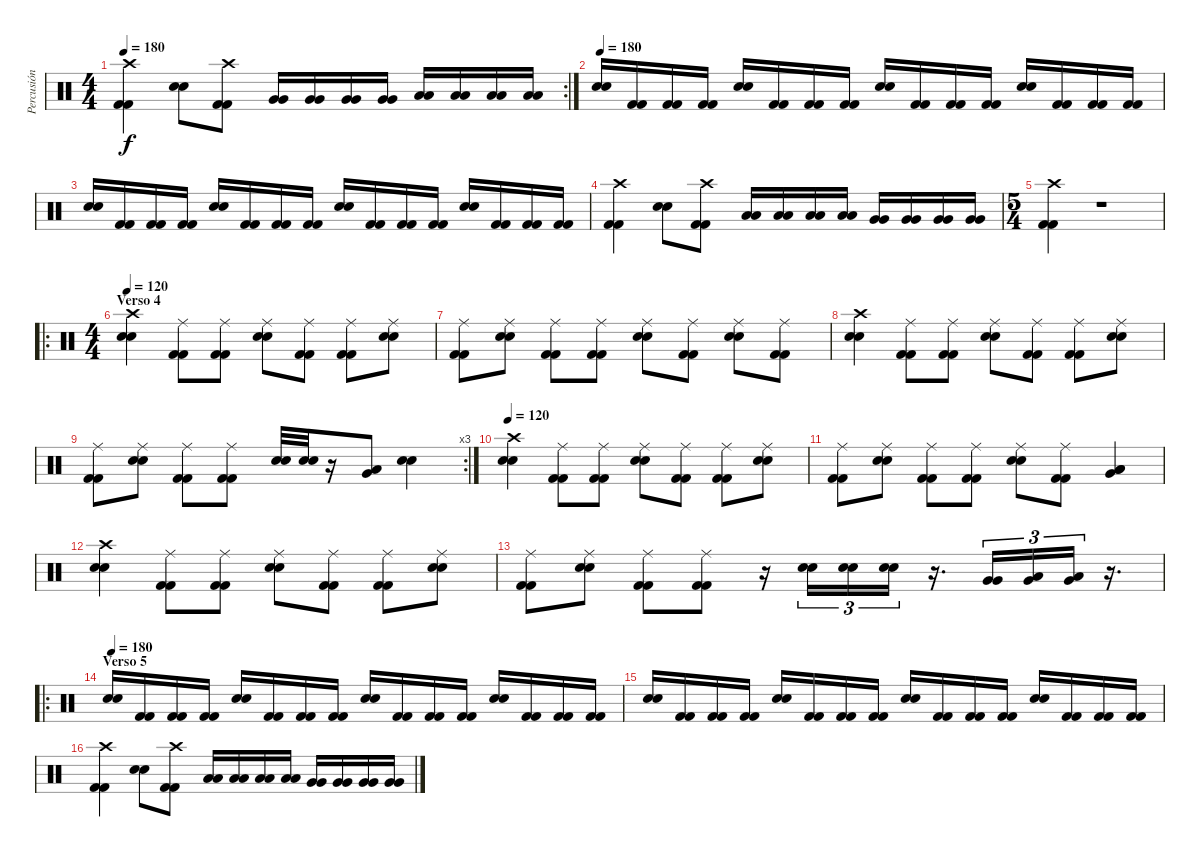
\track ("Percusión" "Percusión") {instrument percussion}
\staff {score}
\articulation defaults
\rc 2
\ts (4 4)
\tempo 180
\clef neutral
\ks c
("Crash high (hit)" "Kick (hit) 2" "Kick (hit) 2").4{dy f} ("Snare (hit) 2" "Snare (hit) 2").8 ("Crash high (hit)" "Kick (hit) 2" "Kick (hit) 2").8 ("Very Low Tom (hit)" "Very Low Tom (hit)").16 ("Very Low Tom (hit)" "Very Low Tom (hit)").16 ("Very Low Tom (hit)" "Very Low Tom (hit)").16 ("Very Low Tom (hit)" "Very Low Tom (hit)").16 ("Low Floor Tom (hit)" "Low Floor Tom (hit)").16 ("Low Floor Tom (hit)" "Low Floor Tom (hit)").16 ("Low Floor Tom (hit)" "Low Floor Tom (hit)").16 ("Low Floor Tom (hit)" "Low Floor Tom (hit)").16 |
\tempo 180
("Snare (hit) 2" "Snare (hit) 2").16 ("Kick (hit) 2" "Kick (hit) 2").16 ("Kick (hit) 2" "Kick (hit) 2").16 ("Kick (hit) 2" "Kick (hit) 2").16 ("Snare (hit) 2" "Snare (hit) 2").16 ("Kick (hit) 2" "Kick (hit) 2").16 ("Kick (hit) 2" "Kick (hit) 2").16 ("Kick (hit) 2" "Kick (hit) 2").16 ("Snare (hit) 2" "Snare (hit) 2").16 ("Kick (hit) 2" "Kick (hit) 2").16 ("Kick (hit) 2" "Kick (hit) 2").16 ("Kick (hit) 2" "Kick (hit) 2").16 ("Snare (hit) 2" "Snare (hit) 2").16 ("Kick (hit) 2" "Kick (hit) 2").16 ("Kick (hit) 2" "Kick (hit) 2").16 ("Kick (hit) 2" "Kick (hit) 2").16 |
("Snare (hit) 2" "Snare (hit) 2").16 ("Kick (hit) 2" "Kick (hit) 2").16 ("Kick (hit) 2" "Kick (hit) 2").16 ("Kick (hit) 2" "Kick (hit) 2").16 ("Snare (hit) 2" "Snare (hit) 2").16 ("Kick (hit) 2" "Kick (hit) 2").16 ("Kick (hit) 2" "Kick (hit) 2").16 ("Kick (hit) 2" "Kick (hit) 2").16 ("Snare (hit) 2" "Snare (hit) 2").16 ("Kick (hit) 2" "Kick (hit) 2").16 ("Kick (hit) 2" "Kick (hit) 2").16 ("Kick (hit) 2" "Kick (hit) 2").16 ("Snare (hit) 2" "Snare (hit) 2").16 ("Kick (hit) 2" "Kick (hit) 2").16 ("Kick (hit) 2" "Kick (hit) 2").16 ("Kick (hit) 2" "Kick (hit) 2").16 |
("Crash high (hit)" "Kick (hit) 2" "Kick (hit) 2").4 ("Snare (hit) 2" "Snare (hit) 2").8 ("Crash high (hit)" "Kick (hit) 2" "Kick (hit) 2").8 ("Low Tom (hit)" "Low Tom (hit)").16 ("Low Tom (hit)" "Low Tom (hit)").16 ("Low Tom (hit)" "Low Tom (hit)").16 ("Low Tom (hit)" "Low Tom (hit)").16 ("Very Low Tom (hit)" "Very Low Tom (hit)").16 ("Very Low Tom (hit)" "Very Low Tom (hit)").16 ("Very Low Tom (hit)" "Very Low Tom (hit)").16 ("Very Low Tom (hit)" "Very Low Tom (hit)").16 |
\ts (5 4)
("Crash high (hit)" "Kick (hit) 2" "Kick (hit) 2").4 r.1 |
\ro
\ts (4 4)
\section ("" "Verso 4")
\tempo 120
("Crash high (hit)" "Snare (hit) 2" "Snare (hit) 2").4 ("Ride (middle)" "Kick (hit) 2" "Kick (hit) 2").8 ("Ride (middle)" "Kick (hit) 2" "Kick (hit) 2").8 ("Ride (middle)" "Snare (hit) 2" "Snare (hit) 2").8 ("Ride (middle)" "Kick (hit) 2" "Kick (hit) 2").8 ("Ride (middle)" "Kick (hit) 2" "Kick (hit) 2").8 ("Ride (middle)" "Snare (hit) 2" "Snare (hit) 2").8 |
("Ride (middle)" "Kick (hit) 2" "Kick (hit) 2").8 ("Ride (middle)" "Snare (hit) 2" "Snare (hit) 2").8 ("Ride (middle)" "Kick (hit) 2" "Kick (hit) 2").8 ("Ride (middle)" "Kick (hit) 2" "Kick (hit) 2").8 ("Ride (middle)" "Snare (hit) 2" "Snare (hit) 2").8 ("Ride (middle)" "Kick (hit) 2" "Kick (hit) 2").8 ("Ride (middle)" "Snare (hit) 2" "Snare (hit) 2").8 ("Ride (middle)" "Kick (hit) 2" "Kick (hit) 2").8 |
("Crash high (hit)" "Snare (hit) 2" "Snare (hit) 2").4 ("Ride (middle)" "Kick (hit) 2" "Kick (hit) 2").8 ("Ride (middle)" "Kick (hit) 2" "Kick (hit) 2").8 ("Ride (middle)" "Snare (hit) 2" "Snare (hit) 2").8 ("Ride (middle)" "Kick (hit) 2" "Kick (hit) 2").8 ("Ride (middle)" "Kick (hit) 2" "Kick (hit) 2").8 ("Ride (middle)" "Snare (hit) 2" "Snare (hit) 2").8 |
\rc 3
("Ride (middle)" "Kick (hit) 2" "Kick (hit) 2").8 ("Ride (middle)" "Snare (hit) 2" "Snare (hit) 2").8 ("Ride (middle)" "Kick (hit) 2" "Kick (hit) 2").8 ("Ride (middle)" "Kick (hit) 2" "Kick (hit) 2").8 ("Electric Snare (hit)" "Electric Snare (hit)").32 ("Electric Snare (hit)" "Electric Snare (hit)").32 r.16 ("Very Low Tom (hit)" "Low Floor Tom (hit)").8 ("Snare (hit) 2" "Snare (hit) 2").4 |
\tempo 120
("Crash high (hit)" "Snare (hit) 2" "Snare (hit) 2").4 ("Ride (middle)" "Kick (hit) 2" "Kick (hit) 2").8 ("Ride (middle)" "Kick (hit) 2" "Kick (hit) 2").8 ("Ride (middle)" "Snare (hit) 2" "Snare (hit) 2").8 ("Ride (middle)" "Kick (hit) 2" "Kick (hit) 2").8 ("Ride (middle)" "Kick (hit) 2" "Kick (hit) 2").8 ("Ride (middle)" "Snare (hit) 2" "Snare (hit) 2").8 |
("Ride (middle)" "Kick (hit) 2" "Kick (hit) 2").8 ("Ride (middle)" "Snare (hit) 2" "Snare (hit) 2").8 ("Ride (middle)" "Kick (hit) 2" "Kick (hit) 2").8 ("Ride (middle)" "Kick (hit) 2" "Kick (hit) 2").8 ("Ride (middle)" "Snare (hit) 2" "Snare (hit) 2").8 ("Ride (middle)" "Kick (hit) 2" "Kick (hit) 2").8 ("Low Tom (hit)" "Very Low Tom (hit)" "Low Floor Tom (hit)").4 |
("Crash high (hit)" "Snare (hit) 2" "Snare (hit) 2").4 ("Ride (middle)" "Kick (hit) 2" "Kick (hit) 2").8 ("Ride (middle)" "Kick (hit) 2" "Kick (hit) 2").8 ("Ride (middle)" "Snare (hit) 2" "Snare (hit) 2").8 ("Ride (middle)" "Kick (hit) 2" "Kick (hit) 2").8 ("Ride (middle)" "Kick (hit) 2" "Kick (hit) 2").8 ("Ride (middle)" "Snare (hit) 2" "Snare (hit) 2").8 |
("Ride (middle)" "Kick (hit) 2" "Kick (hit) 2").8 ("Ride (middle)" "Snare (hit) 2" "Snare (hit) 2").8 ("Ride (middle)" "Kick (hit) 2" "Kick (hit) 2").8 ("Ride (middle)" "Kick (hit) 2" "Kick (hit) 2").8 r.16 ("Snare (hit) 2" "Snare (hit) 2").16{tu (3 2)} ("Snare (hit) 2" "Snare (hit) 2").16{tu (3 2)} ("Snare (hit) 2" "Snare (hit) 2").16{tu (3 2)} r.16{d} ("Very Low Tom (hit)" "Very Low Tom (hit)").16{tu (3 2)} ("Very Low Tom (hit)" "Low Floor Tom (hit)").16{tu (3 2)} ("Very Low Tom (hit)" "Low Floor Tom (hit)").16{tu (3 2)} r.16{d} |
\ro
\section ("" "Verso 5")
\tempo 180
("Snare (hit) 2" "Snare (hit) 2").16 ("Kick (hit) 2" "Kick (hit) 2").16 ("Kick (hit) 2" "Kick (hit) 2").16 ("Kick (hit) 2" "Kick (hit) 2").16 ("Snare (hit) 2" "Snare (hit) 2").16 ("Kick (hit) 2" "Kick (hit) 2").16 ("Kick (hit) 2" "Kick (hit) 2").16 ("Kick (hit) 2" "Kick (hit) 2").16 ("Snare (hit) 2" "Snare (hit) 2").16 ("Kick (hit) 2" "Kick (hit) 2").16 ("Kick (hit) 2" "Kick (hit) 2").16 ("Kick (hit) 2" "Kick (hit) 2").16 ("Snare (hit) 2" "Snare (hit) 2").16 ("Kick (hit) 2" "Kick (hit) 2").16 ("Kick (hit) 2" "Kick (hit) 2").16 ("Kick (hit) 2" "Kick (hit) 2").16 |
("Snare (hit) 2" "Snare (hit) 2").16 ("Kick (hit) 2" "Kick (hit) 2").16 ("Kick (hit) 2" "Kick (hit) 2").16 ("Kick (hit) 2" "Kick (hit) 2").16 ("Snare (hit) 2" "Snare (hit) 2").16 ("Kick (hit) 2" "Kick (hit) 2").16 ("Kick (hit) 2" "Kick (hit) 2").16 ("Kick (hit) 2" "Kick (hit) 2").16 ("Snare (hit) 2" "Snare (hit) 2").16 ("Kick (hit) 2" "Kick (hit) 2").16 ("Kick (hit) 2" "Kick (hit) 2").16 ("Kick (hit) 2" "Kick (hit) 2").16 ("Snare (hit) 2" "Snare (hit) 2").16 ("Kick (hit) 2" "Kick (hit) 2").16 ("Kick (hit) 2" "Kick (hit) 2").16 ("Kick (hit) 2" "Kick (hit) 2").16 |
("Crash high (hit)" "Kick (hit) 2" "Kick (hit) 2").4 ("Snare (hit) 2" "Snare (hit) 2").8 ("Crash high (hit)" "Kick (hit) 2" "Kick (hit) 2").8 ("Low Tom (hit)" "Low Tom (hit)").16 ("Low Tom (hit)" "Low Tom (hit)").16 ("Low Tom (hit)" "Low Tom (hit)").16 ("Low Tom (hit)" "Low Tom (hit)").16 ("Very Low Tom (hit)" "Very Low Tom (hit)").16 ("Very Low Tom (hit)" "Very Low Tom (hit)").16 ("Very Low Tom (hit)" "Very Low Tom (hit)").16 ("Very Low Tom (hit)" "Very Low Tom (hit)").16
